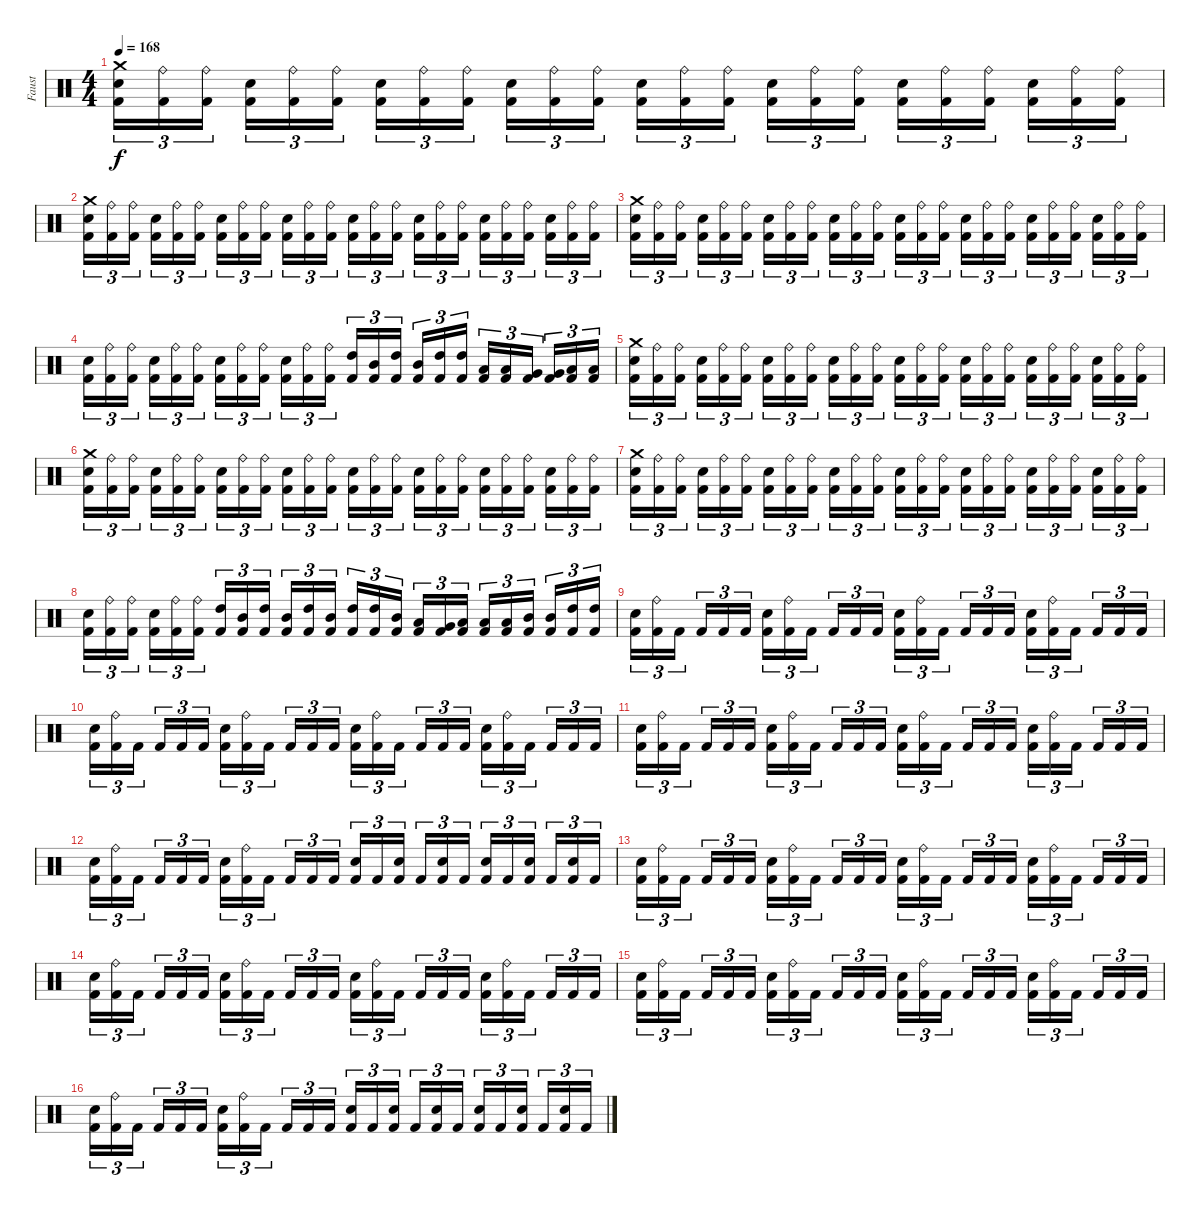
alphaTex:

\track ("Faust" "Faust") {instrument percussion}
\staff {score}
\articulation defaults
\ts (4 4)
\tempo 168
\clef neutral
\ks c
("Crash medium (hit)" "Electric Snare (hit)" "Kick (hit) 2").16{tu (3 2) dy f} ("Ride (bell)" "Kick (hit) 2").16{tu (3 2)} ("Ride (bell)" "Kick (hit) 2").16{tu (3 2)} ("Electric Snare (hit)" "Kick (hit) 2").16{tu (3 2)} ("Ride (bell)" "Kick (hit) 2").16{tu (3 2)} ("Ride (bell)" "Kick (hit) 2").16{tu (3 2)} ("Electric Snare (hit)" "Kick (hit) 2").16{tu (3 2)} ("Ride (bell)" "Kick (hit) 2").16{tu (3 2)} ("Ride (bell)" "Kick (hit) 2").16{tu (3 2)} ("Electric Snare (hit)" "Kick (hit) 2").16{tu (3 2)} ("Ride (bell)" "Kick (hit) 2").16{tu (3 2)} ("Ride (bell)" "Kick (hit) 2").16{tu (3 2)} ("Electric Snare (hit)" "Kick (hit) 2").16{tu (3 2)} ("Ride (bell)" "Kick (hit) 2").16{tu (3 2)} ("Ride (bell)" "Kick (hit) 2").16{tu (3 2)} ("Electric Snare (hit)" "Kick (hit) 2").16{tu (3 2)} ("Ride (bell)" "Kick (hit) 2").16{tu (3 2)} ("Ride (bell)" "Kick (hit) 2").16{tu (3 2)} ("Electric Snare (hit)" "Kick (hit) 2").16{tu (3 2)} ("Ride (bell)" "Kick (hit) 2").16{tu (3 2)} ("Ride (bell)" "Kick (hit) 2").16{tu (3 2)} ("Electric Snare (hit)" "Kick (hit) 2").16{tu (3 2)} ("Ride (bell)" "Kick (hit) 2").16{tu (3 2)} ("Ride (bell)" "Kick (hit) 2").16{tu (3 2)} |
("Crash medium (hit)" "Electric Snare (hit)" "Kick (hit) 2").16{tu (3 2)} ("Ride (bell)" "Kick (hit) 2").16{tu (3 2)} ("Ride (bell)" "Kick (hit) 2").16{tu (3 2)} ("Electric Snare (hit)" "Kick (hit) 2").16{tu (3 2)} ("Ride (bell)" "Kick (hit) 2").16{tu (3 2)} ("Ride (bell)" "Kick (hit) 2").16{tu (3 2)} ("Electric Snare (hit)" "Kick (hit) 2").16{tu (3 2)} ("Ride (bell)" "Kick (hit) 2").16{tu (3 2)} ("Ride (bell)" "Kick (hit) 2").16{tu (3 2)} ("Electric Snare (hit)" "Kick (hit) 2").16{tu (3 2)} ("Ride (bell)" "Kick (hit) 2").16{tu (3 2)} ("Ride (bell)" "Kick (hit) 2").16{tu (3 2)} ("Electric Snare (hit)" "Kick (hit) 2").16{tu (3 2)} ("Ride (bell)" "Kick (hit) 2").16{tu (3 2)} ("Ride (bell)" "Kick (hit) 2").16{tu (3 2)} ("Electric Snare (hit)" "Kick (hit) 2").16{tu (3 2)} ("Ride (bell)" "Kick (hit) 2").16{tu (3 2)} ("Ride (bell)" "Kick (hit) 2").16{tu (3 2)} ("Electric Snare (hit)" "Kick (hit) 2").16{tu (3 2)} ("Ride (bell)" "Kick (hit) 2").16{tu (3 2)} ("Ride (bell)" "Kick (hit) 2").16{tu (3 2)} ("Electric Snare (hit)" "Kick (hit) 2").16{tu (3 2)} ("Ride (bell)" "Kick (hit) 2").16{tu (3 2)} ("Ride (bell)" "Kick (hit) 2").16{tu (3 2)} |
("Crash medium (hit)" "Electric Snare (hit)" "Kick (hit) 2").16{tu (3 2)} ("Ride (bell)" "Kick (hit) 2").16{tu (3 2)} ("Ride (bell)" "Kick (hit) 2").16{tu (3 2)} ("Electric Snare (hit)" "Kick (hit) 2").16{tu (3 2)} ("Ride (bell)" "Kick (hit) 2").16{tu (3 2)} ("Ride (bell)" "Kick (hit) 2").16{tu (3 2)} ("Electric Snare (hit)" "Kick (hit) 2").16{tu (3 2)} ("Ride (bell)" "Kick (hit) 2").16{tu (3 2)} ("Ride (bell)" "Kick (hit) 2").16{tu (3 2)} ("Electric Snare (hit)" "Kick (hit) 2").16{tu (3 2)} ("Ride (bell)" "Kick (hit) 2").16{tu (3 2)} ("Ride (bell)" "Kick (hit) 2").16{tu (3 2)} ("Electric Snare (hit)" "Kick (hit) 2").16{tu (3 2)} ("Ride (bell)" "Kick (hit) 2").16{tu (3 2)} ("Ride (bell)" "Kick (hit) 2").16{tu (3 2)} ("Electric Snare (hit)" "Kick (hit) 2").16{tu (3 2)} ("Ride (bell)" "Kick (hit) 2").16{tu (3 2)} ("Ride (bell)" "Kick (hit) 2").16{tu (3 2)} ("Electric Snare (hit)" "Kick (hit) 2").16{tu (3 2)} ("Ride (bell)" "Kick (hit) 2").16{tu (3 2)} ("Ride (bell)" "Kick (hit) 2").16{tu (3 2)} ("Electric Snare (hit)" "Kick (hit) 2").16{tu (3 2)} ("Ride (bell)" "Kick (hit) 2").16{tu (3 2)} ("Ride (bell)" "Kick (hit) 2").16{tu (3 2)} |
("Electric Snare (hit)" "Kick (hit) 2").16{tu (3 2)} ("Ride (bell)" "Kick (hit) 2").16{tu (3 2)} ("Ride (bell)" "Kick (hit) 2").16{tu (3 2)} ("Electric Snare (hit)" "Kick (hit) 2").16{tu (3 2)} ("Ride (bell)" "Kick (hit) 2").16{tu (3 2)} ("Ride (bell)" "Kick (hit) 2").16{tu (3 2)} ("Electric Snare (hit)" "Kick (hit) 2").16{tu (3 2)} ("Ride (bell)" "Kick (hit) 2").16{tu (3 2)} ("Ride (bell)" "Kick (hit) 2").16{tu (3 2)} ("Electric Snare (hit)" "Kick (hit) 2").16{tu (3 2)} ("Ride (bell)" "Kick (hit) 2").16{tu (3 2)} ("Ride (bell)" "Kick (hit) 2").16{tu (3 2)} ("High Tom (hit)" "Kick (hit) 2").16{tu (3 2)} ("Mid Tom (hit)" "Kick (hit) 2").16{tu (3 2)} ("High Tom (hit)" "Kick (hit) 2").16{tu (3 2)} ("Mid Tom (hit)" "Kick (hit) 2").16{tu (3 2)} ("High Tom (hit)" "Kick (hit) 2").16{tu (3 2)} ("High Tom (hit)" "Kick (hit) 2").16{tu (3 2)} ("Low Tom (hit)" "Kick (hit) 2").16{tu (3 2)} ("Low Tom (hit)" "Kick (hit) 2").16{tu (3 2)} ("Very Low Tom (hit)" "Kick (hit) 2").16{tu (3 2)} ("Very Low Tom (hit)" "Kick (hit) 2").16{tu (3 2)} ("Low Floor Tom (hit)" "Kick (hit) 2").16{tu (3 2)} ("Low Floor Tom (hit)" "Kick (hit) 2").16{tu (3 2)} |
("Crash medium (hit)" "Electric Snare (hit)" "Kick (hit) 2").16{tu (3 2)} ("Ride (bell)" "Kick (hit) 2").16{tu (3 2)} ("Ride (bell)" "Kick (hit) 2").16{tu (3 2)} ("Electric Snare (hit)" "Kick (hit) 2").16{tu (3 2)} ("Ride (bell)" "Kick (hit) 2").16{tu (3 2)} ("Ride (bell)" "Kick (hit) 2").16{tu (3 2)} ("Electric Snare (hit)" "Kick (hit) 2").16{tu (3 2)} ("Ride (bell)" "Kick (hit) 2").16{tu (3 2)} ("Ride (bell)" "Kick (hit) 2").16{tu (3 2)} ("Electric Snare (hit)" "Kick (hit) 2").16{tu (3 2)} ("Ride (bell)" "Kick (hit) 2").16{tu (3 2)} ("Ride (bell)" "Kick (hit) 2").16{tu (3 2)} ("Electric Snare (hit)" "Kick (hit) 2").16{tu (3 2)} ("Ride (bell)" "Kick (hit) 2").16{tu (3 2)} ("Ride (bell)" "Kick (hit) 2").16{tu (3 2)} ("Electric Snare (hit)" "Kick (hit) 2").16{tu (3 2)} ("Ride (bell)" "Kick (hit) 2").16{tu (3 2)} ("Ride (bell)" "Kick (hit) 2").16{tu (3 2)} ("Electric Snare (hit)" "Kick (hit) 2").16{tu (3 2)} ("Ride (bell)" "Kick (hit) 2").16{tu (3 2)} ("Ride (bell)" "Kick (hit) 2").16{tu (3 2)} ("Electric Snare (hit)" "Kick (hit) 2").16{tu (3 2)} ("Ride (bell)" "Kick (hit) 2").16{tu (3 2)} ("Ride (bell)" "Kick (hit) 2").16{tu (3 2)} |
("Crash medium (hit)" "Electric Snare (hit)" "Kick (hit) 2").16{tu (3 2)} ("Ride (bell)" "Kick (hit) 2").16{tu (3 2)} ("Ride (bell)" "Kick (hit) 2").16{tu (3 2)} ("Electric Snare (hit)" "Kick (hit) 2").16{tu (3 2)} ("Ride (bell)" "Kick (hit) 2").16{tu (3 2)} ("Ride (bell)" "Kick (hit) 2").16{tu (3 2)} ("Electric Snare (hit)" "Kick (hit) 2").16{tu (3 2)} ("Ride (bell)" "Kick (hit) 2").16{tu (3 2)} ("Ride (bell)" "Kick (hit) 2").16{tu (3 2)} ("Electric Snare (hit)" "Kick (hit) 2").16{tu (3 2)} ("Ride (bell)" "Kick (hit) 2").16{tu (3 2)} ("Ride (bell)" "Kick (hit) 2").16{tu (3 2)} ("Electric Snare (hit)" "Kick (hit) 2").16{tu (3 2)} ("Ride (bell)" "Kick (hit) 2").16{tu (3 2)} ("Ride (bell)" "Kick (hit) 2").16{tu (3 2)} ("Electric Snare (hit)" "Kick (hit) 2").16{tu (3 2)} ("Ride (bell)" "Kick (hit) 2").16{tu (3 2)} ("Ride (bell)" "Kick (hit) 2").16{tu (3 2)} ("Electric Snare (hit)" "Kick (hit) 2").16{tu (3 2)} ("Ride (bell)" "Kick (hit) 2").16{tu (3 2)} ("Ride (bell)" "Kick (hit) 2").16{tu (3 2)} ("Electric Snare (hit)" "Kick (hit) 2").16{tu (3 2)} ("Ride (bell)" "Kick (hit) 2").16{tu (3 2)} ("Ride (bell)" "Kick (hit) 2").16{tu (3 2)} |
("Crash medium (hit)" "Electric Snare (hit)" "Kick (hit) 2").16{tu (3 2)} ("Ride (bell)" "Kick (hit) 2").16{tu (3 2)} ("Ride (bell)" "Kick (hit) 2").16{tu (3 2)} ("Electric Snare (hit)" "Kick (hit) 2").16{tu (3 2)} ("Ride (bell)" "Kick (hit) 2").16{tu (3 2)} ("Ride (bell)" "Kick (hit) 2").16{tu (3 2)} ("Electric Snare (hit)" "Kick (hit) 2").16{tu (3 2)} ("Ride (bell)" "Kick (hit) 2").16{tu (3 2)} ("Ride (bell)" "Kick (hit) 2").16{tu (3 2)} ("Electric Snare (hit)" "Kick (hit) 2").16{tu (3 2)} ("Ride (bell)" "Kick (hit) 2").16{tu (3 2)} ("Ride (bell)" "Kick (hit) 2").16{tu (3 2)} ("Electric Snare (hit)" "Kick (hit) 2").16{tu (3 2)} ("Ride (bell)" "Kick (hit) 2").16{tu (3 2)} ("Ride (bell)" "Kick (hit) 2").16{tu (3 2)} ("Electric Snare (hit)" "Kick (hit) 2").16{tu (3 2)} ("Ride (bell)" "Kick (hit) 2").16{tu (3 2)} ("Ride (bell)" "Kick (hit) 2").16{tu (3 2)} ("Electric Snare (hit)" "Kick (hit) 2").16{tu (3 2)} ("Ride (bell)" "Kick (hit) 2").16{tu (3 2)} ("Ride (bell)" "Kick (hit) 2").16{tu (3 2)} ("Electric Snare (hit)" "Kick (hit) 2").16{tu (3 2)} ("Ride (bell)" "Kick (hit) 2").16{tu (3 2)} ("Ride (bell)" "Kick (hit) 2").16{tu (3 2)} |
("Electric Snare (hit)" "Kick (hit) 2").16{tu (3 2)} ("Ride (bell)" "Kick (hit) 2").16{tu (3 2)} ("Ride (bell)" "Kick (hit) 2").16{tu (3 2)} ("Electric Snare (hit)" "Kick (hit) 2").16{tu (3 2)} ("Ride (bell)" "Kick (hit) 2").16{tu (3 2)} ("Ride (bell)" "Kick (hit) 2").16{tu (3 2)} ("High Tom (hit)" "Kick (hit) 2").16{tu (3 2)} ("Mid Tom (hit)" "Kick (hit) 2").16{tu (3 2)} ("High Tom (hit)" "Kick (hit) 2").16{tu (3 2)} ("Mid Tom (hit)" "Kick (hit) 2").16{tu (3 2)} ("High Tom (hit)" "Kick (hit) 2").16{tu (3 2)} ("Mid Tom (hit)" "Kick (hit) 2").16{tu (3 2)} ("High Tom (hit)" "Kick (hit) 2").16{tu (3 2)} ("High Tom (hit)" "Kick (hit) 2").16{tu (3 2)} ("Mid Tom (hit)" "Kick (hit) 2").16{tu (3 2)} ("Low Tom (hit)" "Kick (hit) 2").16{tu (3 2)} ("Very Low Tom (hit)" "Kick (hit) 2").16{tu (3 2)} ("Low Tom (hit)" "Kick (hit) 2").16{tu (3 2)} ("Low Tom (hit)" "Kick (hit) 2").16{tu (3 2)} ("Low Tom (hit)" "Kick (hit) 2").16{tu (3 2)} ("Mid Tom (hit)" "Kick (hit) 2").16{tu (3 2)} ("Mid Tom (hit)" "Kick (hit) 2").16{tu (3 2)} ("High Tom (hit)" "Kick (hit) 2").16{tu (3 2)} ("High Tom (hit)" "Kick (hit) 2").16{tu (3 2)} |
("Electric Snare (hit)" "Kick (hit) 2").16{tu (3 2)} ("Ride (bell)" "Kick (hit) 2").16{tu (3 2)} "Kick (hit) 2".16{tu (3 2)} "Kick (hit) 2".16{tu (3 2)} "Kick (hit) 2".16{tu (3 2)} "Kick (hit) 2".16{tu (3 2)} ("Electric Snare (hit)" "Kick (hit) 2").16{tu (3 2)} ("Ride (bell)" "Kick (hit) 2").16{tu (3 2)} "Kick (hit) 2".16{tu (3 2)} "Kick (hit) 2".16{tu (3 2)} "Kick (hit) 2".16{tu (3 2)} "Kick (hit) 2".16{tu (3 2)} ("Electric Snare (hit)" "Kick (hit) 2").16{tu (3 2)} ("Ride (bell)" "Kick (hit) 2").16{tu (3 2)} "Kick (hit) 2".16{tu (3 2)} "Kick (hit) 2".16{tu (3 2)} "Kick (hit) 2".16{tu (3 2)} "Kick (hit) 2".16{tu (3 2)} ("Electric Snare (hit)" "Kick (hit) 2").16{tu (3 2)} ("Ride (bell)" "Kick (hit) 2").16{tu (3 2)} "Kick (hit) 2".16{tu (3 2)} "Kick (hit) 2".16{tu (3 2)} "Kick (hit) 2".16{tu (3 2)} "Kick (hit) 2".16{tu (3 2)} |
("Electric Snare (hit)" "Kick (hit) 2").16{tu (3 2)} ("Ride (bell)" "Kick (hit) 2").16{tu (3 2)} "Kick (hit) 2".16{tu (3 2)} "Kick (hit) 2".16{tu (3 2)} "Kick (hit) 2".16{tu (3 2)} "Kick (hit) 2".16{tu (3 2)} ("Electric Snare (hit)" "Kick (hit) 2").16{tu (3 2)} ("Ride (bell)" "Kick (hit) 2").16{tu (3 2)} "Kick (hit) 2".16{tu (3 2)} "Kick (hit) 2".16{tu (3 2)} "Kick (hit) 2".16{tu (3 2)} "Kick (hit) 2".16{tu (3 2)} ("Electric Snare (hit)" "Kick (hit) 2").16{tu (3 2)} ("Ride (bell)" "Kick (hit) 2").16{tu (3 2)} "Kick (hit) 2".16{tu (3 2)} "Kick (hit) 2".16{tu (3 2)} "Kick (hit) 2".16{tu (3 2)} "Kick (hit) 2".16{tu (3 2)} ("Electric Snare (hit)" "Kick (hit) 2").16{tu (3 2)} ("Ride (bell)" "Kick (hit) 2").16{tu (3 2)} "Kick (hit) 2".16{tu (3 2)} "Kick (hit) 2".16{tu (3 2)} "Kick (hit) 2".16{tu (3 2)} "Kick (hit) 2".16{tu (3 2)} |
("Electric Snare (hit)" "Kick (hit) 2").16{tu (3 2)} ("Ride (bell)" "Kick (hit) 2").16{tu (3 2)} "Kick (hit) 2".16{tu (3 2)} "Kick (hit) 2".16{tu (3 2)} "Kick (hit) 2".16{tu (3 2)} "Kick (hit) 2".16{tu (3 2)} ("Electric Snare (hit)" "Kick (hit) 2").16{tu (3 2)} ("Ride (bell)" "Kick (hit) 2").16{tu (3 2)} "Kick (hit) 2".16{tu (3 2)} "Kick (hit) 2".16{tu (3 2)} "Kick (hit) 2".16{tu (3 2)} "Kick (hit) 2".16{tu (3 2)} ("Electric Snare (hit)" "Kick (hit) 2").16{tu (3 2)} ("Ride (bell)" "Kick (hit) 2").16{tu (3 2)} "Kick (hit) 2".16{tu (3 2)} "Kick (hit) 2".16{tu (3 2)} "Kick (hit) 2".16{tu (3 2)} "Kick (hit) 2".16{tu (3 2)} ("Electric Snare (hit)" "Kick (hit) 2").16{tu (3 2)} ("Ride (bell)" "Kick (hit) 2").16{tu (3 2)} "Kick (hit) 2".16{tu (3 2)} "Kick (hit) 2".16{tu (3 2)} "Kick (hit) 2".16{tu (3 2)} "Kick (hit) 2".16{tu (3 2)} |
("Electric Snare (hit)" "Kick (hit) 2").16{tu (3 2)} ("Ride (bell)" "Kick (hit) 2").16{tu (3 2)} "Kick (hit) 2".16{tu (3 2)} "Kick (hit) 2".16{tu (3 2)} "Kick (hit) 2".16{tu (3 2)} "Kick (hit) 2".16{tu (3 2)} ("Electric Snare (hit)" "Kick (hit) 2").16{tu (3 2)} ("Ride (bell)" "Kick (hit) 2").16{tu (3 2)} "Kick (hit) 2".16{tu (3 2)} "Kick (hit) 2".16{tu (3 2)} "Kick (hit) 2".16{tu (3 2)} "Kick (hit) 2".16{tu (3 2)} ("Electric Snare (hit)" "Kick (hit) 2").16{tu (3 2)} "Kick (hit) 2".16{tu (3 2)} ("Electric Snare (hit)" "Kick (hit) 2").16{tu (3 2)} "Kick (hit) 2".16{tu (3 2)} ("Electric Snare (hit)" "Kick (hit) 2").16{tu (3 2)} "Kick (hit) 2".16{tu (3 2)} ("Electric Snare (hit)" "Kick (hit) 2").16{tu (3 2)} "Kick (hit) 2".16{tu (3 2)} ("Electric Snare (hit)" "Kick (hit) 2").16{tu (3 2)} "Kick (hit) 2".16{tu (3 2)} ("Electric Snare (hit)" "Kick (hit) 2").16{tu (3 2)} "Kick (hit) 2".16{tu (3 2)} |
("Electric Snare (hit)" "Kick (hit) 2").16{tu (3 2)} ("Ride (bell)" "Kick (hit) 2").16{tu (3 2)} "Kick (hit) 2".16{tu (3 2)} "Kick (hit) 2".16{tu (3 2)} "Kick (hit) 2".16{tu (3 2)} "Kick (hit) 2".16{tu (3 2)} ("Electric Snare (hit)" "Kick (hit) 2").16{tu (3 2)} ("Ride (bell)" "Kick (hit) 2").16{tu (3 2)} "Kick (hit) 2".16{tu (3 2)} "Kick (hit) 2".16{tu (3 2)} "Kick (hit) 2".16{tu (3 2)} "Kick (hit) 2".16{tu (3 2)} ("Electric Snare (hit)" "Kick (hit) 2").16{tu (3 2)} ("Ride (bell)" "Kick (hit) 2").16{tu (3 2)} "Kick (hit) 2".16{tu (3 2)} "Kick (hit) 2".16{tu (3 2)} "Kick (hit) 2".16{tu (3 2)} "Kick (hit) 2".16{tu (3 2)} ("Electric Snare (hit)" "Kick (hit) 2").16{tu (3 2)} ("Ride (bell)" "Kick (hit) 2").16{tu (3 2)} "Kick (hit) 2".16{tu (3 2)} "Kick (hit) 2".16{tu (3 2)} "Kick (hit) 2".16{tu (3 2)} "Kick (hit) 2".16{tu (3 2)} |
("Electric Snare (hit)" "Kick (hit) 2").16{tu (3 2)} ("Ride (bell)" "Kick (hit) 2").16{tu (3 2)} "Kick (hit) 2".16{tu (3 2)} "Kick (hit) 2".16{tu (3 2)} "Kick (hit) 2".16{tu (3 2)} "Kick (hit) 2".16{tu (3 2)} ("Electric Snare (hit)" "Kick (hit) 2").16{tu (3 2)} ("Ride (bell)" "Kick (hit) 2").16{tu (3 2)} "Kick (hit) 2".16{tu (3 2)} "Kick (hit) 2".16{tu (3 2)} "Kick (hit) 2".16{tu (3 2)} "Kick (hit) 2".16{tu (3 2)} ("Electric Snare (hit)" "Kick (hit) 2").16{tu (3 2)} ("Ride (bell)" "Kick (hit) 2").16{tu (3 2)} "Kick (hit) 2".16{tu (3 2)} "Kick (hit) 2".16{tu (3 2)} "Kick (hit) 2".16{tu (3 2)} "Kick (hit) 2".16{tu (3 2)} ("Electric Snare (hit)" "Kick (hit) 2").16{tu (3 2)} ("Ride (bell)" "Kick (hit) 2").16{tu (3 2)} "Kick (hit) 2".16{tu (3 2)} "Kick (hit) 2".16{tu (3 2)} "Kick (hit) 2".16{tu (3 2)} "Kick (hit) 2".16{tu (3 2)} |
("Electric Snare (hit)" "Kick (hit) 2").16{tu (3 2)} ("Ride (bell)" "Kick (hit) 2").16{tu (3 2)} "Kick (hit) 2".16{tu (3 2)} "Kick (hit) 2".16{tu (3 2)} "Kick (hit) 2".16{tu (3 2)} "Kick (hit) 2".16{tu (3 2)} ("Electric Snare (hit)" "Kick (hit) 2").16{tu (3 2)} ("Ride (bell)" "Kick (hit) 2").16{tu (3 2)} "Kick (hit) 2".16{tu (3 2)} "Kick (hit) 2".16{tu (3 2)} "Kick (hit) 2".16{tu (3 2)} "Kick (hit) 2".16{tu (3 2)} ("Electric Snare (hit)" "Kick (hit) 2").16{tu (3 2)} ("Ride (bell)" "Kick (hit) 2").16{tu (3 2)} "Kick (hit) 2".16{tu (3 2)} "Kick (hit) 2".16{tu (3 2)} "Kick (hit) 2".16{tu (3 2)} "Kick (hit) 2".16{tu (3 2)} ("Electric Snare (hit)" "Kick (hit) 2").16{tu (3 2)} ("Ride (bell)" "Kick (hit) 2").16{tu (3 2)} "Kick (hit) 2".16{tu (3 2)} "Kick (hit) 2".16{tu (3 2)} "Kick (hit) 2".16{tu (3 2)} "Kick (hit) 2".16{tu (3 2)} |
("Electric Snare (hit)" "Kick (hit) 2").16{tu (3 2)} ("Ride (bell)" "Kick (hit) 2").16{tu (3 2)} "Kick (hit) 2".16{tu (3 2)} "Kick (hit) 2".16{tu (3 2)} "Kick (hit) 2".16{tu (3 2)} "Kick (hit) 2".16{tu (3 2)} ("Electric Snare (hit)" "Kick (hit) 2").16{tu (3 2)} ("Ride (bell)" "Kick (hit) 2").16{tu (3 2)} "Kick (hit) 2".16{tu (3 2)} "Kick (hit) 2".16{tu (3 2)} "Kick (hit) 2".16{tu (3 2)} "Kick (hit) 2".16{tu (3 2)} ("Electric Snare (hit)" "Kick (hit) 2").16{tu (3 2)} "Kick (hit) 2".16{tu (3 2)} ("Electric Snare (hit)" "Kick (hit) 2").16{tu (3 2)} "Kick (hit) 2".16{tu (3 2)} ("Electric Snare (hit)" "Kick (hit) 2").16{tu (3 2)} "Kick (hit) 2".16{tu (3 2)} ("Electric Snare (hit)" "Kick (hit) 2").16{tu (3 2)} "Kick (hit) 2".16{tu (3 2)} ("Electric Snare (hit)" "Kick (hit) 2").16{tu (3 2)} "Kick (hit) 2".16{tu (3 2)} ("Electric Snare (hit)" "Kick (hit) 2").16{tu (3 2)} "Kick (hit) 2".16{tu (3 2)}
